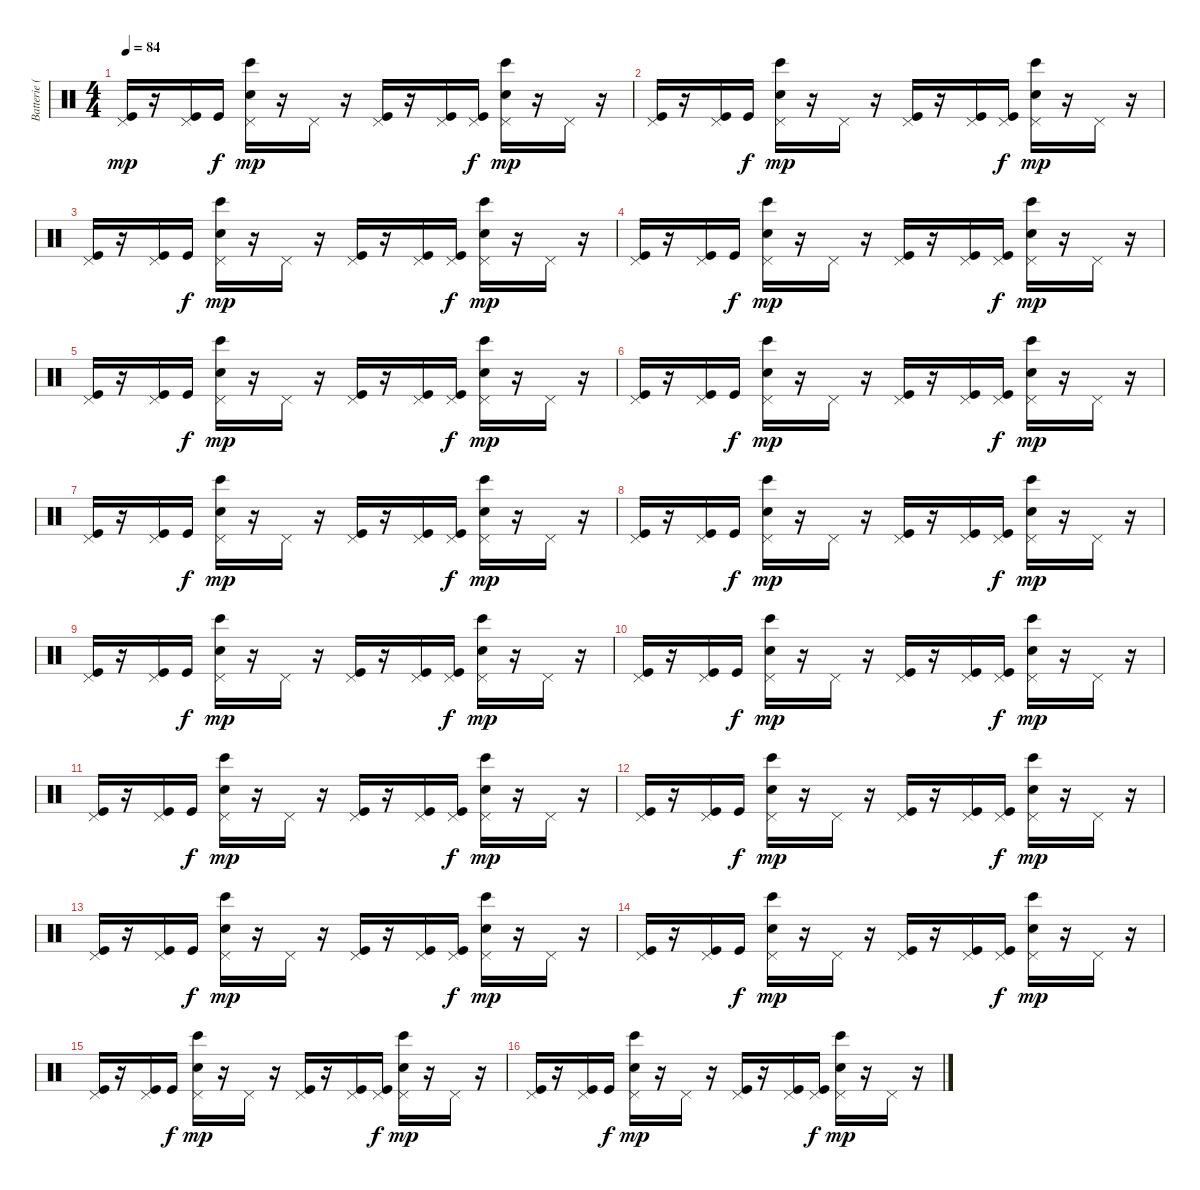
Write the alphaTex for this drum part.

\track ("Batterie (+hand claps)" "Batterie (") {instrument percussion}
\staff {score}
\articulation defaults
\ts (4 4)
\tempo 84
\clef neutral
\ks c
("Pedal Hi-Hat (hit)" "Kick (hit)").16{dy mp} r.16 ("Pedal Hi-Hat (hit)" "Kick (hit)").16 "Kick (hit)".16{dy f} ("Pedal Hi-Hat (hit)" "Hand Clap (hit)" "Bongo High (hit)").16{dy mp} r.16 "Pedal Hi-Hat (hit)".16 r.16 ("Pedal Hi-Hat (hit)" "Kick (hit)").16 r.16 ("Pedal Hi-Hat (hit)" "Kick (hit)").16 ("Pedal Hi-Hat (hit)" "Kick (hit)").16{dy f} ("Pedal Hi-Hat (hit)" "Hand Clap (hit)" "Bongo High (hit)").16{dy mp} r.16 "Pedal Hi-Hat (hit)".16 r.16 |
("Pedal Hi-Hat (hit)" "Kick (hit)").16 r.16 ("Pedal Hi-Hat (hit)" "Kick (hit)").16 "Kick (hit)".16{dy f} ("Pedal Hi-Hat (hit)" "Hand Clap (hit)" "Bongo High (hit)").16{dy mp} r.16 "Pedal Hi-Hat (hit)".16 r.16 ("Pedal Hi-Hat (hit)" "Kick (hit)").16 r.16 ("Pedal Hi-Hat (hit)" "Kick (hit)").16 ("Pedal Hi-Hat (hit)" "Kick (hit)").16{dy f} ("Pedal Hi-Hat (hit)" "Hand Clap (hit)" "Bongo High (hit)").16{dy mp} r.16 "Pedal Hi-Hat (hit)".16 r.16 |
("Pedal Hi-Hat (hit)" "Kick (hit)").16 r.16 ("Pedal Hi-Hat (hit)" "Kick (hit)").16 "Kick (hit)".16{dy f} ("Pedal Hi-Hat (hit)" "Hand Clap (hit)" "Bongo High (hit)").16{dy mp} r.16 "Pedal Hi-Hat (hit)".16 r.16 ("Pedal Hi-Hat (hit)" "Kick (hit)").16 r.16 ("Pedal Hi-Hat (hit)" "Kick (hit)").16 ("Pedal Hi-Hat (hit)" "Kick (hit)").16{dy f} ("Pedal Hi-Hat (hit)" "Hand Clap (hit)" "Bongo High (hit)").16{dy mp} r.16 "Pedal Hi-Hat (hit)".16 r.16 |
("Pedal Hi-Hat (hit)" "Kick (hit)").16 r.16 ("Pedal Hi-Hat (hit)" "Kick (hit)").16 "Kick (hit)".16{dy f} ("Pedal Hi-Hat (hit)" "Hand Clap (hit)" "Bongo High (hit)").16{dy mp} r.16 "Pedal Hi-Hat (hit)".16 r.16 ("Pedal Hi-Hat (hit)" "Kick (hit)").16 r.16 ("Pedal Hi-Hat (hit)" "Kick (hit)").16 ("Pedal Hi-Hat (hit)" "Kick (hit)").16{dy f} ("Pedal Hi-Hat (hit)" "Hand Clap (hit)" "Bongo High (hit)").16{dy mp} r.16 "Pedal Hi-Hat (hit)".16 r.16 |
("Pedal Hi-Hat (hit)" "Kick (hit)").16 r.16 ("Pedal Hi-Hat (hit)" "Kick (hit)").16 "Kick (hit)".16{dy f} ("Pedal Hi-Hat (hit)" "Hand Clap (hit)" "Bongo High (hit)").16{dy mp} r.16 "Pedal Hi-Hat (hit)".16 r.16 ("Pedal Hi-Hat (hit)" "Kick (hit)").16 r.16 ("Pedal Hi-Hat (hit)" "Kick (hit)").16 ("Pedal Hi-Hat (hit)" "Kick (hit)").16{dy f} ("Pedal Hi-Hat (hit)" "Hand Clap (hit)" "Bongo High (hit)").16{dy mp} r.16 "Pedal Hi-Hat (hit)".16 r.16 |
("Pedal Hi-Hat (hit)" "Kick (hit)").16 r.16 ("Pedal Hi-Hat (hit)" "Kick (hit)").16 "Kick (hit)".16{dy f} ("Pedal Hi-Hat (hit)" "Hand Clap (hit)" "Bongo High (hit)").16{dy mp} r.16 "Pedal Hi-Hat (hit)".16 r.16 ("Pedal Hi-Hat (hit)" "Kick (hit)").16 r.16 ("Pedal Hi-Hat (hit)" "Kick (hit)").16 ("Pedal Hi-Hat (hit)" "Kick (hit)").16{dy f} ("Pedal Hi-Hat (hit)" "Hand Clap (hit)" "Bongo High (hit)").16{dy mp} r.16 "Pedal Hi-Hat (hit)".16 r.16 |
("Pedal Hi-Hat (hit)" "Kick (hit)").16 r.16 ("Pedal Hi-Hat (hit)" "Kick (hit)").16 "Kick (hit)".16{dy f} ("Pedal Hi-Hat (hit)" "Hand Clap (hit)" "Bongo High (hit)").16{dy mp} r.16 "Pedal Hi-Hat (hit)".16 r.16 ("Pedal Hi-Hat (hit)" "Kick (hit)").16 r.16 ("Pedal Hi-Hat (hit)" "Kick (hit)").16 ("Pedal Hi-Hat (hit)" "Kick (hit)").16{dy f} ("Pedal Hi-Hat (hit)" "Hand Clap (hit)" "Bongo High (hit)").16{dy mp} r.16 "Pedal Hi-Hat (hit)".16 r.16 |
("Pedal Hi-Hat (hit)" "Kick (hit)").16 r.16 ("Pedal Hi-Hat (hit)" "Kick (hit)").16 "Kick (hit)".16{dy f} ("Pedal Hi-Hat (hit)" "Hand Clap (hit)" "Bongo High (hit)").16{dy mp} r.16 "Pedal Hi-Hat (hit)".16 r.16 ("Pedal Hi-Hat (hit)" "Kick (hit)").16 r.16 ("Pedal Hi-Hat (hit)" "Kick (hit)").16 ("Pedal Hi-Hat (hit)" "Kick (hit)").16{dy f} ("Pedal Hi-Hat (hit)" "Hand Clap (hit)" "Bongo High (hit)").16{dy mp} r.16 "Pedal Hi-Hat (hit)".16 r.16 |
("Pedal Hi-Hat (hit)" "Kick (hit)").16 r.16 ("Pedal Hi-Hat (hit)" "Kick (hit)").16 "Kick (hit)".16{dy f} ("Pedal Hi-Hat (hit)" "Hand Clap (hit)" "Bongo High (hit)").16{dy mp} r.16 "Pedal Hi-Hat (hit)".16 r.16 ("Pedal Hi-Hat (hit)" "Kick (hit)").16 r.16 ("Pedal Hi-Hat (hit)" "Kick (hit)").16 ("Pedal Hi-Hat (hit)" "Kick (hit)").16{dy f} ("Pedal Hi-Hat (hit)" "Hand Clap (hit)" "Bongo High (hit)").16{dy mp} r.16 "Pedal Hi-Hat (hit)".16 r.16 |
("Pedal Hi-Hat (hit)" "Kick (hit)").16 r.16 ("Pedal Hi-Hat (hit)" "Kick (hit)").16 "Kick (hit)".16{dy f} ("Pedal Hi-Hat (hit)" "Hand Clap (hit)" "Bongo High (hit)").16{dy mp} r.16 "Pedal Hi-Hat (hit)".16 r.16 ("Pedal Hi-Hat (hit)" "Kick (hit)").16 r.16 ("Pedal Hi-Hat (hit)" "Kick (hit)").16 ("Pedal Hi-Hat (hit)" "Kick (hit)").16{dy f} ("Pedal Hi-Hat (hit)" "Hand Clap (hit)" "Bongo High (hit)").16{dy mp} r.16 "Pedal Hi-Hat (hit)".16 r.16 |
("Pedal Hi-Hat (hit)" "Kick (hit)").16 r.16 ("Pedal Hi-Hat (hit)" "Kick (hit)").16 "Kick (hit)".16{dy f} ("Pedal Hi-Hat (hit)" "Hand Clap (hit)" "Bongo High (hit)").16{dy mp} r.16 "Pedal Hi-Hat (hit)".16 r.16 ("Pedal Hi-Hat (hit)" "Kick (hit)").16 r.16 ("Pedal Hi-Hat (hit)" "Kick (hit)").16 ("Pedal Hi-Hat (hit)" "Kick (hit)").16{dy f} ("Pedal Hi-Hat (hit)" "Hand Clap (hit)" "Bongo High (hit)").16{dy mp} r.16 "Pedal Hi-Hat (hit)".16 r.16 |
("Pedal Hi-Hat (hit)" "Kick (hit)").16 r.16 ("Pedal Hi-Hat (hit)" "Kick (hit)").16 "Kick (hit)".16{dy f} ("Pedal Hi-Hat (hit)" "Hand Clap (hit)" "Bongo High (hit)").16{dy mp} r.16 "Pedal Hi-Hat (hit)".16 r.16 ("Pedal Hi-Hat (hit)" "Kick (hit)").16 r.16 ("Pedal Hi-Hat (hit)" "Kick (hit)").16 ("Pedal Hi-Hat (hit)" "Kick (hit)").16{dy f} ("Pedal Hi-Hat (hit)" "Hand Clap (hit)" "Bongo High (hit)").16{dy mp} r.16 "Pedal Hi-Hat (hit)".16 r.16 |
("Pedal Hi-Hat (hit)" "Kick (hit)").16 r.16 ("Pedal Hi-Hat (hit)" "Kick (hit)").16 "Kick (hit)".16{dy f} ("Pedal Hi-Hat (hit)" "Hand Clap (hit)" "Bongo High (hit)").16{dy mp} r.16 "Pedal Hi-Hat (hit)".16 r.16 ("Pedal Hi-Hat (hit)" "Kick (hit)").16 r.16 ("Pedal Hi-Hat (hit)" "Kick (hit)").16 ("Pedal Hi-Hat (hit)" "Kick (hit)").16{dy f} ("Pedal Hi-Hat (hit)" "Hand Clap (hit)" "Bongo High (hit)").16{dy mp} r.16 "Pedal Hi-Hat (hit)".16 r.16 |
("Pedal Hi-Hat (hit)" "Kick (hit)").16 r.16 ("Pedal Hi-Hat (hit)" "Kick (hit)").16 "Kick (hit)".16{dy f} ("Pedal Hi-Hat (hit)" "Hand Clap (hit)" "Bongo High (hit)").16{dy mp} r.16 "Pedal Hi-Hat (hit)".16 r.16 ("Pedal Hi-Hat (hit)" "Kick (hit)").16 r.16 ("Pedal Hi-Hat (hit)" "Kick (hit)").16 ("Pedal Hi-Hat (hit)" "Kick (hit)").16{dy f} ("Pedal Hi-Hat (hit)" "Hand Clap (hit)" "Bongo High (hit)").16{dy mp} r.16 "Pedal Hi-Hat (hit)".16 r.16 |
("Pedal Hi-Hat (hit)" "Kick (hit)").16 r.16 ("Pedal Hi-Hat (hit)" "Kick (hit)").16 "Kick (hit)".16{dy f} ("Pedal Hi-Hat (hit)" "Hand Clap (hit)" "Bongo High (hit)").16{dy mp} r.16 "Pedal Hi-Hat (hit)".16 r.16 ("Pedal Hi-Hat (hit)" "Kick (hit)").16 r.16 ("Pedal Hi-Hat (hit)" "Kick (hit)").16 ("Pedal Hi-Hat (hit)" "Kick (hit)").16{dy f} ("Pedal Hi-Hat (hit)" "Hand Clap (hit)" "Bongo High (hit)").16{dy mp} r.16 "Pedal Hi-Hat (hit)".16 r.16 |
("Pedal Hi-Hat (hit)" "Kick (hit)").16 r.16 ("Pedal Hi-Hat (hit)" "Kick (hit)").16 "Kick (hit)".16{dy f} ("Pedal Hi-Hat (hit)" "Hand Clap (hit)" "Bongo High (hit)").16{dy mp} r.16 "Pedal Hi-Hat (hit)".16 r.16 ("Pedal Hi-Hat (hit)" "Kick (hit)").16 r.16 ("Pedal Hi-Hat (hit)" "Kick (hit)").16 ("Pedal Hi-Hat (hit)" "Kick (hit)").16{dy f} ("Pedal Hi-Hat (hit)" "Hand Clap (hit)" "Bongo High (hit)").16{dy mp} r.16 "Pedal Hi-Hat (hit)".16 r.16
